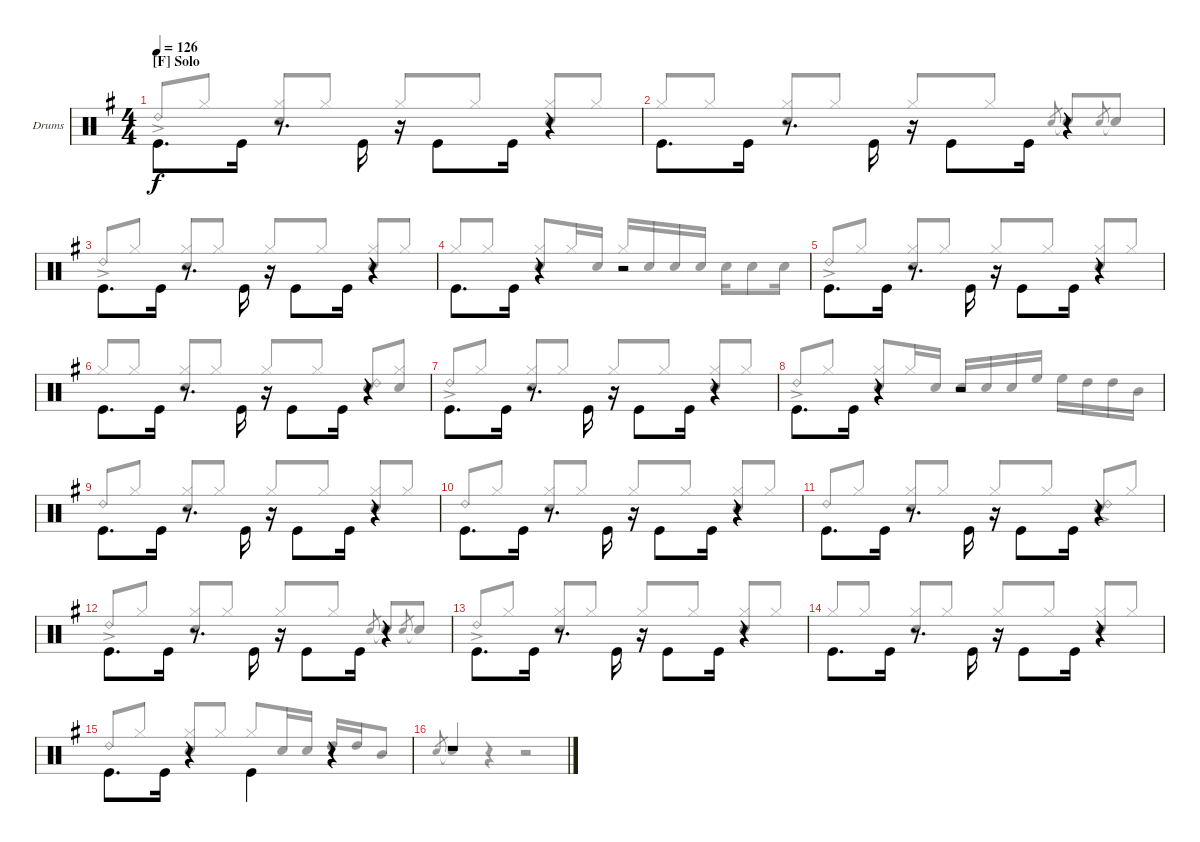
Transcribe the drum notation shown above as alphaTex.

\defaultSystemsLayout 4
\bracketExtendMode groupsimilarinstruments
\firstSystemTrackNameOrientation horizontal
\otherSystemsTrackNameOrientation horizontal
\track ("Drumkit" "Drums") {instrument percussion}
\staff {score}
\articulation defaults
\voice
\ts (4 4)
\section ("F" "Solo")
\tempo 126
\clef neutral
\scale
1.04288
\ks g "Kick (hit)".8{d dy f beam invert} "Kick (hit)".16
r.8{d beam invert} "Kick (hit)".16{beam invert} r.16{beam invert} "Kick (hit)".8{beam invert} "Kick (hit)".16 r.4{beam invert} |
\scale
0.957125 "Kick (hit)".8{d beam invert} "Kick (hit)".16 r.8{d beam invert} "Kick (hit)".16{beam invert} r.16{beam invert} "Kick (hit)".8{beam invert} "Kick (hit)".16 r.4{beam invert} |
\scale
1.04288 "Kick (hit)".8{d beam invert} "Kick (hit)".16 r.8{d beam invert} "Kick (hit)".16{beam invert} r.16{beam invert} "Kick (hit)".8{beam invert} "Kick (hit)".16 r.4{beam invert} |
\scale
0.957125 "Kick (hit)".8{d beam invert} "Kick (hit)".16 r.4{beam invert} r.2 |
\scale
1.04288 "Kick (hit)".8{d beam invert} "Kick (hit)".16 r.8{d beam invert} "Kick (hit)".16{beam invert} r.16{beam invert} "Kick (hit)".8{beam invert} "Kick (hit)".16 r.4{beam invert} |
\scale
0.957125 "Kick (hit)".8{d beam invert} "Kick (hit)".16 r.8{d beam invert} "Kick (hit)".16{beam invert} r.16{beam invert} "Kick (hit)".8{beam invert} "Kick (hit)".16 r.4{beam invert} |
\scale
1.04288 "Kick (hit)".8{d beam invert} "Kick (hit)".16 r.8{d beam invert} "Kick (hit)".16{beam invert} r.16{beam invert} "Kick (hit)".8{beam invert} "Kick (hit)".16 r.4{beam invert} |
\scale
0.957125 "Kick (hit)".8{d beam invert} "Kick (hit)".16 r.4{beam invert} r.2 |
\scale
1.04288 "Kick (hit)".8{d beam invert} "Kick (hit)".16 r.8{d beam invert} "Kick (hit)".16{beam invert} r.16{beam invert} "Kick (hit)".8{beam invert} "Kick (hit)".16 r.4{beam invert} |
\scale
0.957125 "Kick (hit)".8{d beam invert} "Kick (hit)".16 r.8{d beam invert} "Kick (hit)".16{beam invert} r.16{beam invert} "Kick (hit)".8{beam invert} "Kick (hit)".16 r.4{beam invert} |
\scale
1.04288 "Kick (hit)".8{d beam invert} "Kick (hit)".16 r.8{d beam invert} "Kick (hit)".16{beam invert} r.16{beam invert} "Kick (hit)".8{beam invert} "Kick (hit)".16 r.4{beam invert} |
\scale
0.957125 "Kick (hit)".8{d beam invert} "Kick (hit)".16 r.8{d beam invert} "Kick (hit)".16{beam invert} r.16{beam invert} "Kick (hit)".8{beam invert} "Kick (hit)".16 r.4{beam invert} |
\scale
1.04288 "Kick (hit)".8{d beam invert} "Kick (hit)".16 r.8{d beam invert} "Kick (hit)".16{beam invert} r.16{beam invert} "Kick (hit)".8{beam invert} "Kick (hit)".16 r.4{beam invert} |
\scale
0.957125 "Kick (hit)".8{d beam invert} "Kick (hit)".16 r.8{d beam invert} "Kick (hit)".16{beam invert} r.16{beam invert} "Kick (hit)".8{beam invert} "Kick (hit)".16 r.4{beam invert} |
\scale
1.04288 "Kick (hit)".8{d beam invert} "Kick (hit)".16 r.4{beam invert} "Kick (hit)".4{beam invert} r.4 |
\scale
0.957125 r.1
\voice
\clef neutral
\ottava regular
\simile none
\scale
1.04288
\ks g "Ride (bell) 2"{ac}.8{dy f beam invert} "Hi-Hat (closed)".8
("Hi-Hat (closed)" "Snare (hit) 2").8{beam invert} "Hi-Hat (closed)".8 "Hi-Hat (closed)".8{beam invert} "Hi-Hat (closed)".8 ("Hi-Hat (closed)" "Snare (hit) 2").8{beam invert} "Hi-Hat (closed)".8 |
\scale
0.957125 "Hi-Hat (closed)".8{beam invert} "Hi-Hat (closed)".8 ("Hi-Hat (closed)" "Snare (hit) 2").8{beam invert} "Hi-Hat (closed)".8 "Hi-Hat (closed)".8{beam invert} "Hi-Hat (closed)".8 "Snare (hit) 2".8{gr beam invert} "Snare (hit) 2"{t}.8{beam invert} "Snare (hit) 2".8{gr beam invert} "Snare (hit) 2"{t}.8{beam invert} |
\scale
1.04288 "Ride (bell) 2"{ac}.8{beam invert} "Hi-Hat (closed)".8 ("Hi-Hat (closed)" "Snare (hit) 2").8{beam invert} "Hi-Hat (closed)".8 "Hi-Hat (closed)".8{beam invert} "Hi-Hat (closed)".8 ("Hi-Hat (closed)" "Snare (hit) 2").8{beam invert} "Hi-Hat (closed)".8 |
\scale
0.957125 "Hi-Hat (closed)".8{beam invert} "Hi-Hat (closed)".8 ("Hi-Hat (closed)" "Snare (hit) 2").8{beam invert} "Hi-Hat (closed)".16 "Snare (hit) 2".16 "Hi-Hat (closed)".16{beam invert} "Snare (hit) 2".16 "Snare (hit) 2".16 "Snare (hit) 2".16 "Snare (hit) 2".16 "Snare (hit) 2".8 "Snare (hit) 2".16 |
\scale
1.04288 "Ride (bell) 2"{ac}.8{beam invert} "Hi-Hat (closed)".8 ("Hi-Hat (closed)" "Snare (hit) 2").8{beam invert} "Hi-Hat (closed)".8 "Hi-Hat (closed)".8{beam invert} "Hi-Hat (closed)".8 ("Hi-Hat (closed)" "Snare (hit) 2").8{beam invert} "Hi-Hat (closed)".8 |
\scale
0.957125 "Hi-Hat (closed)".8{beam invert} "Hi-Hat (closed)".8 ("Hi-Hat (closed)" "Snare (hit) 2").8{beam invert} "Hi-Hat (closed)".8 "Hi-Hat (closed)".8{beam invert} "Hi-Hat (closed)".8 ("Snare (hit) 2" "Ride (bell) 2").8{beam invert} ("Hi-Hat (closed)" "Snare (hit) 2").8 |
\scale
1.04288 "Ride (bell) 2"{ac}.8{beam invert} "Hi-Hat (closed)".8 ("Hi-Hat (closed)" "Snare (hit) 2").8{beam invert} "Hi-Hat (closed)".8 "Hi-Hat (closed)".8{beam invert} "Hi-Hat (closed)".8 ("Hi-Hat (closed)" "Snare (hit) 2").8{beam invert} "Hi-Hat (closed)".8 |
\scale
0.957125 "Ride (bell) 2"{ac}.8{beam invert} "Hi-Hat (closed)".8 ("Hi-Hat (closed)" "Snare (hit) 2").8{beam invert} "Hi-Hat (closed)".16 "Snare (hit) 2".16 "Snare (hit) 2".16 "Snare (hit) 2".16 "Snare (hit) 2".16 "High Floor Tom (hit)".16{beam invert} "High Floor Tom (hit)".16 "High Tom (hit)".16 "High Tom (hit)".16 "Mid Tom (hit)".16 |
\scale
1.04288 "Ride (bell) 2".8{beam invert} "Hi-Hat (closed)".8 ("Hi-Hat (closed)" "Snare (hit) 2").8{beam invert} "Hi-Hat (closed)".8 "Hi-Hat (closed)".8{beam invert} "Hi-Hat (closed)".8 ("Hi-Hat (closed)" "Snare (hit) 2").8{beam invert} "Hi-Hat (closed)".8 |
\scale
0.957125 "Ride (bell) 2".8{beam invert} "Hi-Hat (closed)".8 ("Hi-Hat (closed)" "Snare (hit) 2").8{beam invert} "Hi-Hat (closed)".8 "Hi-Hat (closed)".8{beam invert} "Hi-Hat (closed)".8 ("Hi-Hat (closed)" "Snare (hit) 2").8{beam invert} "Hi-Hat (closed)".8 |
\scale
1.04288 "Ride (bell) 2".8{beam invert} "Hi-Hat (closed)".8 ("Hi-Hat (closed)" "Snare (hit) 2").8{beam invert} "Hi-Hat (closed)".8 "Hi-Hat (closed)".8{beam invert} "Hi-Hat (closed)".8 ("Snare (hit) 2" "Ride (bell) 2"{ac}).8{beam invert} "Hi-Hat (closed)".8 |
\scale
0.957125 "Ride (bell) 2"{ac}.8{beam invert} "Hi-Hat (closed)".8 ("Hi-Hat (closed)" "Snare (hit) 2").8{beam invert} "Hi-Hat (closed)".8 "Hi-Hat (closed)".8{beam invert} "Hi-Hat (closed)".8 "Snare (hit) 2".8{gr beam invert} "Snare (hit) 2"{t}.8{beam invert} "Snare (hit) 2".8{gr beam invert} "Snare (hit) 2"{t}.8{beam invert} |
\scale
1.04288 "Ride (bell) 2"{ac}.8{beam invert} "Hi-Hat (closed)".8 ("Hi-Hat (closed)" "Snare (hit) 2").8{beam invert} "Hi-Hat (closed)".8 "Hi-Hat (closed)".8{beam invert} "Hi-Hat (closed)".8 ("Hi-Hat (closed)" "Snare (hit) 2").8{beam invert} "Hi-Hat (closed)".8 |
\scale
0.957125 "Hi-Hat (closed)".8{beam invert} "Hi-Hat (closed)".8 ("Hi-Hat (closed)" "Snare (hit) 2").8{beam invert} "Hi-Hat (closed)".8 "Hi-Hat (closed)".8{beam invert} "Hi-Hat (closed)".8 ("Hi-Hat (closed)" "Snare (hit) 2").8{beam invert} "Hi-Hat (closed)".8 |
\scale
1.04288 "Ride (bell) 2".8{beam invert} "Hi-Hat (closed)".8 ("Hi-Hat (closed)" "Snare (hit) 2").8{beam invert} "Hi-Hat (closed)".8 "Hi-Hat (closed)".8{beam invert} "Snare (hit) 2".16 "Snare (hit) 2".16 "High Tom (hit)".16{beam invert} "High Tom (hit)".16 "Mid Tom (hit)".8 |
\scale
0.957125 "Snare (hit) 2".8{gr beam invert} "Snare (hit) 2"{t}.4{beam invert} r.4 r.2
